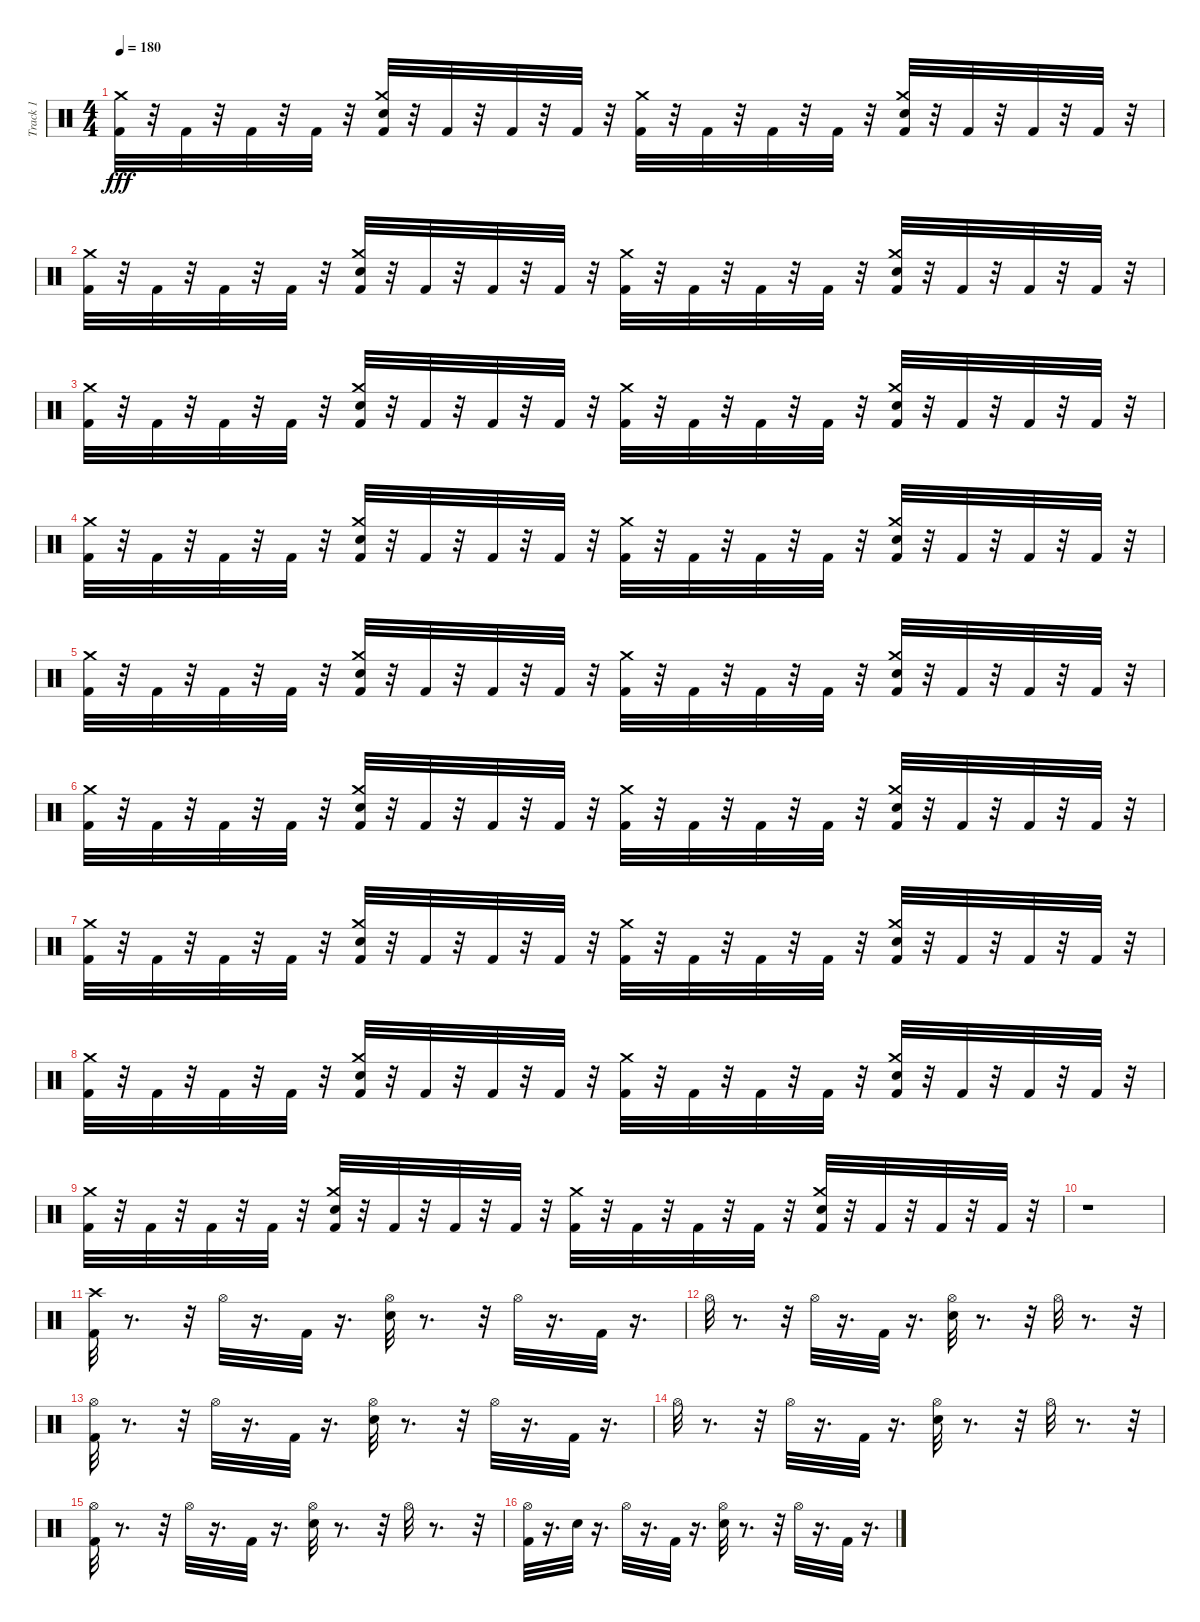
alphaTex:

\track ("Track 1" "Track 1") {mute instrument percussion}
\staff {score}
\articulation defaults
\ts (4 4)
\tempo 180
\clef neutral
\ks c
("Kick (hit) 2" "Crash medium (hit)").32{dy fff} r.32 "Kick (hit) 2".32 r.32 "Kick (hit) 2".32 r.32 "Kick (hit) 2".32 r.32 ("Crash medium (hit)" "Kick (hit) 2" "Snare (hit) 2").32 r.32 "Kick (hit) 2".32 r.32 "Kick (hit) 2".32 r.32 "Kick (hit) 2".32 r.32 ("Kick (hit) 2" "Crash medium (hit)").32 r.32 "Kick (hit) 2".32 r.32 "Kick (hit) 2".32 r.32 "Kick (hit) 2".32 r.32 ("Crash medium (hit)" "Snare (hit) 2" "Kick (hit) 2").32 r.32 "Kick (hit) 2".32 r.32 "Kick (hit) 2".32 r.32 "Kick (hit) 2".32 r.32 |
("Kick (hit) 2" "Crash medium (hit)").32 r.32 "Kick (hit) 2".32 r.32 "Kick (hit) 2".32 r.32 "Kick (hit) 2".32 r.32 ("Crash medium (hit)" "Kick (hit) 2" "Snare (hit) 2").32 r.32 "Kick (hit) 2".32 r.32 "Kick (hit) 2".32 r.32 "Kick (hit) 2".32 r.32 ("Kick (hit) 2" "Crash medium (hit)").32 r.32 "Kick (hit) 2".32 r.32 "Kick (hit) 2".32 r.32 "Kick (hit) 2".32 r.32 ("Crash medium (hit)" "Kick (hit) 2" "Snare (hit) 2").32 r.32 "Kick (hit) 2".32 r.32 "Kick (hit) 2".32 r.32 "Kick (hit) 2".32 r.32 |
("Kick (hit) 2" "Crash medium (hit)").32 r.32 "Kick (hit) 2".32 r.32 "Kick (hit) 2".32 r.32 "Kick (hit) 2".32 r.32 ("Crash medium (hit)" "Kick (hit) 2" "Snare (hit) 2").32 r.32 "Kick (hit) 2".32 r.32 "Kick (hit) 2".32 r.32 "Kick (hit) 2".32 r.32 ("Kick (hit) 2" "Crash medium (hit)").32 r.32 "Kick (hit) 2".32 r.32 "Kick (hit) 2".32 r.32 "Kick (hit) 2".32 r.32 ("Snare (hit) 2" "Crash medium (hit)" "Kick (hit) 2").32 r.32 "Kick (hit) 2".32 r.32 "Kick (hit) 2".32 r.32 "Kick (hit) 2".32 r.32 |
("Kick (hit) 2" "Crash medium (hit)").32 r.32 "Kick (hit) 2".32 r.32 "Kick (hit) 2".32 r.32 "Kick (hit) 2".32 r.32 ("Crash medium (hit)" "Snare (hit) 2" "Kick (hit) 2").32 r.32 "Kick (hit) 2".32 r.32 "Kick (hit) 2".32 r.32 "Kick (hit) 2".32 r.32 ("Kick (hit) 2" "Crash medium (hit)").32 r.32 "Kick (hit) 2".32 r.32 "Kick (hit) 2".32 r.32 "Kick (hit) 2".32 r.32 ("Snare (hit) 2" "Crash medium (hit)" "Kick (hit) 2").32 r.32 "Kick (hit) 2".32 r.32 "Kick (hit) 2".32 r.32 "Kick (hit) 2".32 r.32 |
("Kick (hit) 2" "Crash medium (hit)").32 r.32 "Kick (hit) 2".32 r.32 "Kick (hit) 2".32 r.32 "Kick (hit) 2".32 r.32 ("Crash medium (hit)" "Kick (hit) 2" "Snare (hit) 2").32 r.32 "Kick (hit) 2".32 r.32 "Kick (hit) 2".32 r.32 "Kick (hit) 2".32 r.32 ("Kick (hit) 2" "Crash medium (hit)").32 r.32 "Kick (hit) 2".32 r.32 "Kick (hit) 2".32 r.32 "Kick (hit) 2".32 r.32 ("Crash medium (hit)" "Snare (hit) 2" "Kick (hit) 2").32 r.32 "Kick (hit) 2".32 r.32 "Kick (hit) 2".32 r.32 "Kick (hit) 2".32 r.32 |
("Kick (hit) 2" "Crash medium (hit)").32 r.32 "Kick (hit) 2".32 r.32 "Kick (hit) 2".32 r.32 "Kick (hit) 2".32 r.32 ("Crash medium (hit)" "Kick (hit) 2" "Snare (hit) 2").32 r.32 "Kick (hit) 2".32 r.32 "Kick (hit) 2".32 r.32 "Kick (hit) 2".32 r.32 ("Kick (hit) 2" "Crash medium (hit)").32 r.32 "Kick (hit) 2".32 r.32 "Kick (hit) 2".32 r.32 "Kick (hit) 2".32 r.32 ("Crash medium (hit)" "Kick (hit) 2" "Snare (hit) 2").32 r.32 "Kick (hit) 2".32 r.32 "Kick (hit) 2".32 r.32 "Kick (hit) 2".32 r.32 |
("Kick (hit) 2" "Crash medium (hit)").32 r.32 "Kick (hit) 2".32 r.32 "Kick (hit) 2".32 r.32 "Kick (hit) 2".32 r.32 ("Crash medium (hit)" "Kick (hit) 2" "Snare (hit) 2").32 r.32 "Kick (hit) 2".32 r.32 "Kick (hit) 2".32 r.32 "Kick (hit) 2".32 r.32 ("Kick (hit) 2" "Crash medium (hit)").32 r.32 "Kick (hit) 2".32 r.32 "Kick (hit) 2".32 r.32 "Kick (hit) 2".32 r.32 ("Snare (hit) 2" "Crash medium (hit)" "Kick (hit) 2").32 r.32 "Kick (hit) 2".32 r.32 "Kick (hit) 2".32 r.32 "Kick (hit) 2".32 r.32 |
("Kick (hit) 2" "Crash medium (hit)").32 r.32 "Kick (hit) 2".32 r.32 "Kick (hit) 2".32 r.32 "Kick (hit) 2".32 r.32 ("Crash medium (hit)" "Snare (hit) 2" "Kick (hit) 2").32 r.32 "Kick (hit) 2".32 r.32 "Kick (hit) 2".32 r.32 "Kick (hit) 2".32 r.32 ("Kick (hit) 2" "Crash medium (hit)").32 r.32 "Kick (hit) 2".32 r.32 "Kick (hit) 2".32 r.32 "Kick (hit) 2".32 r.32 ("Snare (hit) 2" "Crash medium (hit)" "Kick (hit) 2").32 r.32 "Kick (hit) 2".32 r.32 "Kick (hit) 2".32 r.32 "Kick (hit) 2".32 r.32 |
("Kick (hit) 2" "Crash medium (hit)").32 r.32 "Kick (hit) 2".32 r.32 "Kick (hit) 2".32 r.32 "Kick (hit) 2".32 r.32 ("Crash medium (hit)" "Kick (hit) 2" "Snare (hit) 2").32 r.32 "Kick (hit) 2".32 r.32 "Kick (hit) 2".32 r.32 "Kick (hit) 2".32 r.32 ("Kick (hit) 2" "Crash medium (hit)").32 r.32 "Kick (hit) 2".32 r.32 "Kick (hit) 2".32 r.32 "Kick (hit) 2".32 r.32 ("Crash medium (hit)" "Snare (hit) 2" "Kick (hit) 2").32 r.32 "Kick (hit) 2".32 r.32 "Kick (hit) 2".32 r.32 "Kick (hit) 2".32 r.32 |
r.1 |
("Crash high (hit)" "Kick (hit) 2").32 r.8{d} r.32 "Hi-Hat (open)".32 r.16{d} "Kick (hit) 2".32 r.16{d} ("Hi-Hat (open)" "Snare (hit) 2").32 r.8{d} r.32 "Hi-Hat (open)".32 r.16{d} "Kick (hit) 2".32 r.16{d} |
"Hi-Hat (open)".32 r.8{d} r.32 "Hi-Hat (open)".32 r.16{d} "Kick (hit) 2".32 r.16{d} ("Hi-Hat (open)" "Snare (hit) 2").32 r.8{d} r.32 "Hi-Hat (open)".32 r.8{d} r.32 |
("Kick (hit) 2" "Hi-Hat (open)").32 r.8{d} r.32 "Hi-Hat (open)".32 r.16{d} "Kick (hit) 2".32 r.16{d} ("Hi-Hat (open)" "Snare (hit) 2").32 r.8{d} r.32 "Hi-Hat (open)".32 r.16{d} "Kick (hit) 2".32 r.16{d} |
"Hi-Hat (open)".32 r.8{d} r.32 "Hi-Hat (open)".32 r.16{d} "Kick (hit) 2".32 r.16{d} ("Hi-Hat (open)" "Snare (hit) 2").32 r.8{d} r.32 "Hi-Hat (open)".32 r.8{d} r.32 |
("Kick (hit) 2" "Hi-Hat (open)").32 r.8{d} r.32 "Hi-Hat (open)".32 r.16{d} "Kick (hit) 2".32 r.16{d} ("Hi-Hat (open)" "Snare (hit) 2").32 r.8{d} r.32 "Hi-Hat (open)".32 r.8{d} r.32 |
("Kick (hit) 2" "Hi-Hat (open)").32 r.16{d} "Snare (hit) 2".32 r.16{d} "Hi-Hat (open)".32 r.16{d} "Kick (hit) 2".32 r.16{d} ("Snare (hit) 2" "Hi-Hat (open)").32 r.8{d} r.32 "Hi-Hat (open)".32 r.16{d} "Kick (hit) 2".32 r.16{d}
